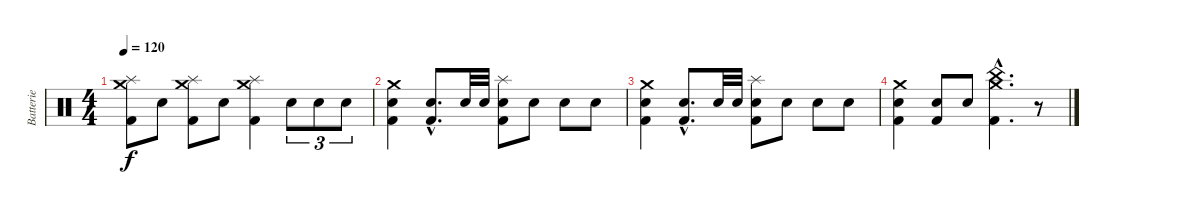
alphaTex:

\track ("Batterie" "Batterie") {instrument percussion}
\staff {score}
\articulation defaults
\ts (4 4)
\tempo 120
\clef neutral
\ks c
("Splash (hit)" "Crash medium (hit)" "Kick (hit) 2").8{dy f} "Electric Snare (hit)".8 ("Splash (hit)" "Crash medium (hit)" "Kick (hit) 2").8 "Electric Snare (hit)".8 ("Splash (hit)" "Crash medium (hit)" "Kick (hit) 2").4 "Electric Snare (hit)".8{tu (3 2)} "Electric Snare (hit)".8{tu (3 2)} "Electric Snare (hit)".8{tu (3 2)} |
("Electric Snare (hit)" "Crash medium (hit)" "Kick (hit) 2").4 ("Electric Snare (hit)"{hac} "Kick (hit) 2"{hac}).8{d} "Electric Snare (hit)".32 "Electric Snare (hit)".32 ("Electric Snare (hit)" "Splash (hit)" "Kick (hit) 2").8 "Electric Snare (hit)".8 "Electric Snare (hit)".8 "Electric Snare (hit)".8 |
("Electric Snare (hit)" "Crash medium (hit)" "Kick (hit) 2").4 ("Electric Snare (hit)"{hac} "Kick (hit) 2"{hac}).8{d} "Electric Snare (hit)".32 "Electric Snare (hit)".32 ("Electric Snare (hit)" "Splash (hit)" "Kick (hit) 2").8 "Electric Snare (hit)".8 "Electric Snare (hit)".8 "Electric Snare (hit)".8 |
("Electric Snare (hit)" "Crash medium (hit)" "Kick (hit) 2").4 ("Electric Snare (hit)" "Kick (hit) 2").8 "Electric Snare (hit)".8 ("Kick (hit) 2"{hac} "China (hit)"{hac} "Crash medium (hit)"{hac}).4{d} r.8
